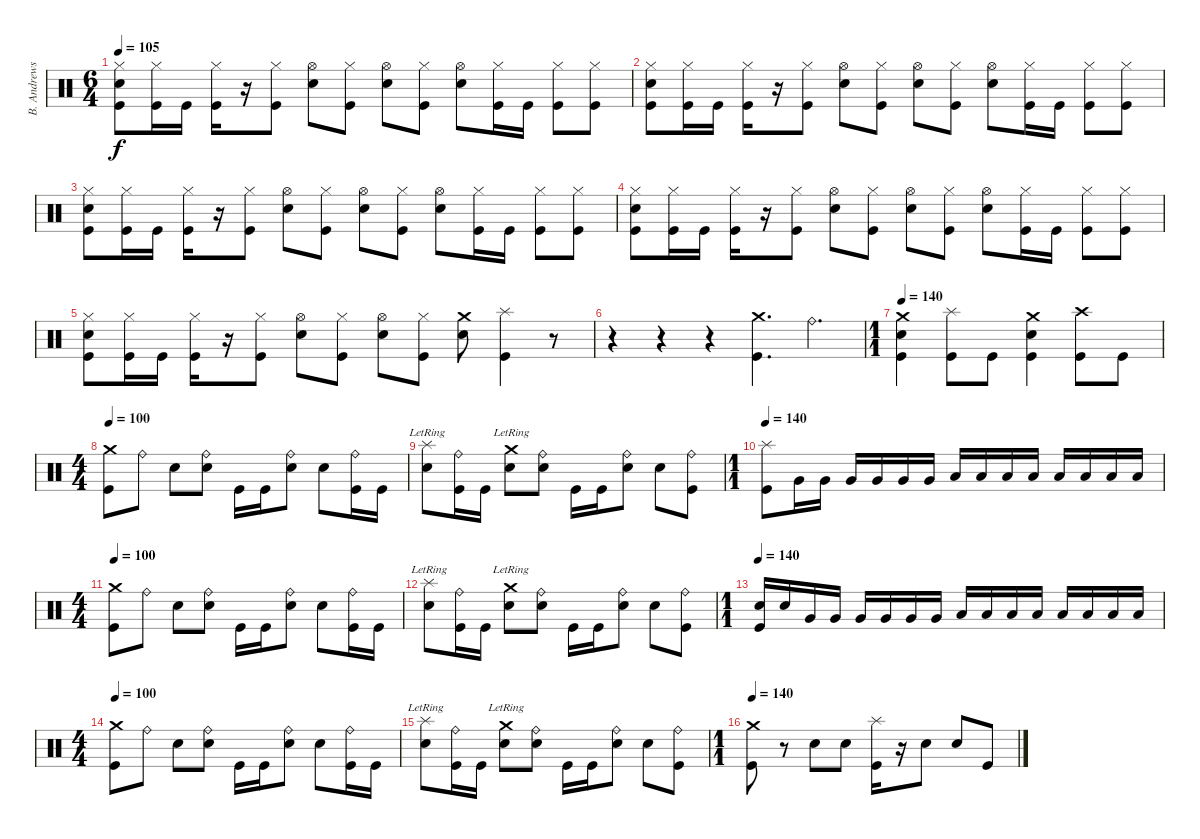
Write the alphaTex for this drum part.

\track ("B. Andrews" "B. Andrews") {instrument percussion}
\staff {score}
\articulation defaults
\ts (6 4)
\tempo 105
\clef neutral
\ks c
("Hi-Hat (closed)" "Electric Snare (hit)" "Kick (hit)").8{dy f} ("Hi-Hat (closed)" "Kick (hit)").16 "Kick (hit)".16 ("Hi-Hat (closed)" "Kick (hit)").16 r.16 ("Hi-Hat (closed)" "Kick (hit)").8 ("Hi-Hat (open)" "Electric Snare (hit)").8 ("Hi-Hat (closed)" "Kick (hit)").8 ("Hi-Hat (open)" "Electric Snare (hit)").8 ("Hi-Hat (closed)" "Kick (hit)").8 ("Hi-Hat (open)" "Electric Snare (hit)").8 ("Hi-Hat (closed)" "Kick (hit)").16 "Kick (hit)".16 ("Hi-Hat (closed)" "Kick (hit)").8 ("Hi-Hat (closed)" "Kick (hit)").8 |
("Hi-Hat (closed)" "Electric Snare (hit)" "Kick (hit)").8 ("Hi-Hat (closed)" "Kick (hit)").16 "Kick (hit)".16 ("Hi-Hat (closed)" "Kick (hit)").16 r.16 ("Hi-Hat (closed)" "Kick (hit)").8 ("Hi-Hat (open)" "Electric Snare (hit)").8 ("Hi-Hat (closed)" "Kick (hit)").8 ("Hi-Hat (open)" "Electric Snare (hit)").8 ("Hi-Hat (closed)" "Kick (hit)").8 ("Hi-Hat (open)" "Electric Snare (hit)").8 ("Hi-Hat (closed)" "Kick (hit)").16 "Kick (hit)".16 ("Hi-Hat (closed)" "Kick (hit)").8 ("Hi-Hat (closed)" "Kick (hit)").8 |
("Hi-Hat (closed)" "Electric Snare (hit)" "Kick (hit)").8 ("Hi-Hat (closed)" "Kick (hit)").16 "Kick (hit)".16 ("Hi-Hat (closed)" "Kick (hit)").16 r.16 ("Hi-Hat (closed)" "Kick (hit)").8 ("Hi-Hat (open)" "Electric Snare (hit)").8 ("Hi-Hat (closed)" "Kick (hit)").8 ("Hi-Hat (open)" "Electric Snare (hit)").8 ("Hi-Hat (closed)" "Kick (hit)").8 ("Hi-Hat (open)" "Electric Snare (hit)").8 ("Hi-Hat (closed)" "Kick (hit)").16 "Kick (hit)".16 ("Hi-Hat (closed)" "Kick (hit)").8 ("Hi-Hat (closed)" "Kick (hit)").8 |
("Hi-Hat (closed)" "Electric Snare (hit)" "Kick (hit)").8 ("Hi-Hat (closed)" "Kick (hit)").16 "Kick (hit)".16 ("Hi-Hat (closed)" "Kick (hit)").16 r.16 ("Hi-Hat (closed)" "Kick (hit)").8 ("Hi-Hat (open)" "Electric Snare (hit)").8 ("Hi-Hat (closed)" "Kick (hit)").8 ("Hi-Hat (open)" "Electric Snare (hit)").8 ("Hi-Hat (closed)" "Kick (hit)").8 ("Hi-Hat (open)" "Electric Snare (hit)").8 ("Hi-Hat (closed)" "Kick (hit)").16 "Kick (hit)".16 ("Hi-Hat (closed)" "Kick (hit)").8 ("Hi-Hat (closed)" "Kick (hit)").8 |
("Hi-Hat (closed)" "Electric Snare (hit)" "Kick (hit)").8 ("Hi-Hat (closed)" "Kick (hit)").16 "Kick (hit)".16 ("Hi-Hat (closed)" "Kick (hit)").16 r.16 ("Hi-Hat (closed)" "Kick (hit)").8 ("Hi-Hat (open)" "Electric Snare (hit)").8 ("Hi-Hat (closed)" "Kick (hit)").8 ("Hi-Hat (open)" "Electric Snare (hit)").8 ("Hi-Hat (closed)" "Kick (hit)").8 ("Crash medium (hit)" "Electric Snare (hit)").8 ("Splash (hit)" "Kick (hit)").4 r.8 |
r.4 r.4 r.4 ("Crash medium (hit)" "Kick (hit)").4{d} "Ride (bell)".4{d} |
\ts (1 1)
\tempo 140
("Crash medium (hit)" "Electric Snare (hit)" "Kick (hit)").4 ("Splash (hit)" "Kick (hit)").8 "Kick (hit)".8 ("Crash medium (hit)" "Electric Snare (hit)" "Kick (hit)").4 ("Crash high (hit)" "Kick (hit)").8 "Kick (hit)".8 |
\ts (4 4)
\tempo 80
\tempo 100
("Crash medium (hit)" "Kick (hit)").8 "Ride (bell)".8 "Electric Snare (hit)".8 ("Ride (bell)" "Electric Snare (hit)").8 "Kick (hit)".16 "Kick (hit)".16 ("Ride (bell)" "Electric Snare (hit)").8 "Electric Snare (hit)".8 ("Ride (bell)" "Kick (hit)").16 "Kick (hit)".16 |
("Splash (hit)"{lr} "Electric Snare (hit)").8 ("Ride (bell)" "Kick (hit)").16 "Kick (hit)".16 ("Crash medium (hit)"{lr} "Electric Snare (hit)").8 ("Ride (bell)" "Electric Snare (hit)").8 "Kick (hit)".16 "Kick (hit)".16 ("Ride (bell)" "Electric Snare (hit)").8 "Electric Snare (hit)".8 ("Ride (bell)" "Kick (hit)").8 |
\ts (1 1)
\tempo 140
("Splash (hit)" "Kick (hit)").8 "Very Low Tom (hit)".16 "Very Low Tom (hit)".16 "Very Low Tom (hit)".16 "Very Low Tom (hit)".16 "Very Low Tom (hit)".16 "Very Low Tom (hit)".16 "Low Floor Tom (hit)".16 "Low Floor Tom (hit)".16 "Low Floor Tom (hit)".16 "Low Floor Tom (hit)".16 "Low Floor Tom (hit)".16 "Low Floor Tom (hit)".16 "Low Floor Tom (hit)".16 "Low Floor Tom (hit)".16 |
\ts (4 4)
\tempo 80
\tempo 100
("Crash medium (hit)" "Kick (hit)").8 "Ride (bell)".8 "Electric Snare (hit)".8 ("Ride (bell)" "Electric Snare (hit)").8 "Kick (hit)".16 "Kick (hit)".16 ("Ride (bell)" "Electric Snare (hit)").8 "Electric Snare (hit)".8 ("Ride (bell)" "Kick (hit)").16 "Kick (hit)".16 |
("Splash (hit)"{lr} "Electric Snare (hit)").8 ("Ride (bell)" "Kick (hit)").16 "Kick (hit)".16 ("Crash medium (hit)"{lr} "Electric Snare (hit)").8 ("Ride (bell)" "Electric Snare (hit)").8 "Kick (hit)".16 "Kick (hit)".16 ("Ride (bell)" "Electric Snare (hit)").8 "Electric Snare (hit)".8 ("Ride (bell)" "Kick (hit)").8 |
\ts (1 1)
\tempo 140
("Electric Snare (hit)" "Kick (hit)").16 "Electric Snare (hit)".16 "Very Low Tom (hit)".16 "Very Low Tom (hit)".16 "Very Low Tom (hit)".16 "Very Low Tom (hit)".16 "Very Low Tom (hit)".16 "Very Low Tom (hit)".16 "Low Floor Tom (hit)".16 "Low Floor Tom (hit)".16 "Low Floor Tom (hit)".16 "Low Floor Tom (hit)".16 "Low Floor Tom (hit)".16 "Low Floor Tom (hit)".16 "Low Floor Tom (hit)".16 "Low Floor Tom (hit)".16 |
\ts (4 4)
\tempo 80
\tempo 100
("Crash medium (hit)" "Kick (hit)").8 "Ride (bell)".8 "Electric Snare (hit)".8 ("Ride (bell)" "Electric Snare (hit)").8 "Kick (hit)".16 "Kick (hit)".16 ("Ride (bell)" "Electric Snare (hit)").8 "Electric Snare (hit)".8 ("Ride (bell)" "Kick (hit)").16 "Kick (hit)".16 |
("Splash (hit)"{lr} "Electric Snare (hit)").8 ("Ride (bell)" "Kick (hit)").16 "Kick (hit)".16 ("Crash medium (hit)"{lr} "Electric Snare (hit)").8 ("Ride (bell)" "Electric Snare (hit)").8 "Kick (hit)".16 "Kick (hit)".16 ("Ride (bell)" "Electric Snare (hit)").8 "Electric Snare (hit)".8 ("Ride (bell)" "Kick (hit)").8 |
\ts (1 1)
\tempo 140
("Crash medium (hit)" "Kick (hit)").8 r.8 "Electric Snare (hit)".8 "Electric Snare (hit)".8 ("Splash (hit)" "Kick (hit)").16 r.16 "Electric Snare (hit)".8 "Electric Snare (hit)".8 "Kick (hit)".8
